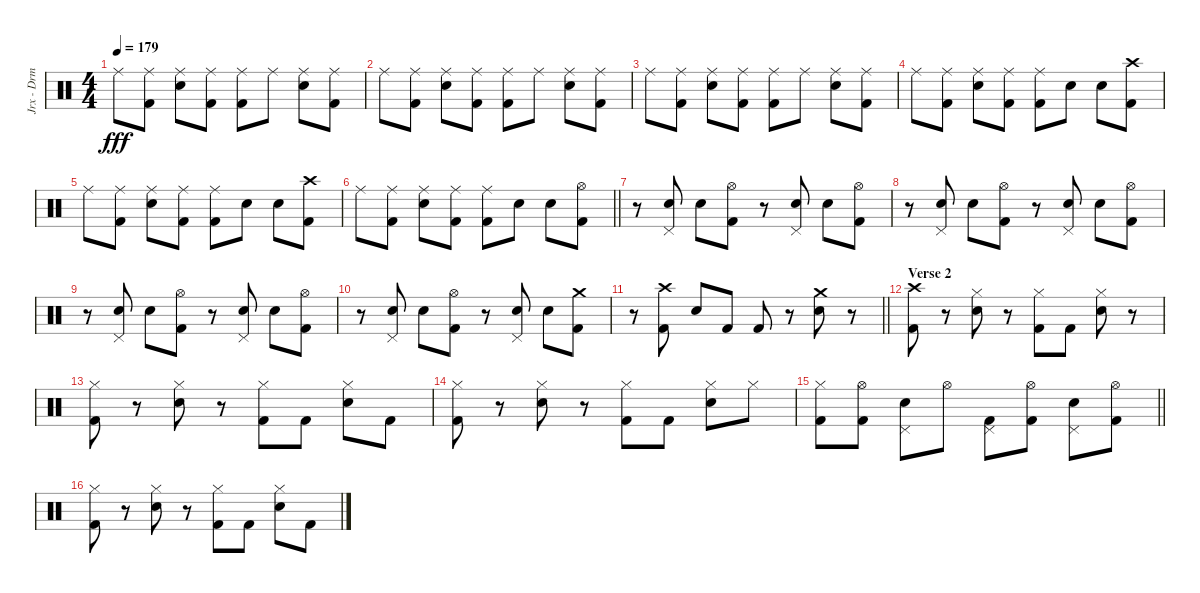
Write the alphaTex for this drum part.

\track ("Jrx - Drm" "Jrx - Drm") {instrument percussion}
\staff {score}
\articulation defaults
\ts (4 4)
\tempo 179
\clef neutral
\ks c "Ride (middle)".8{dy fff}
("Kick (hit) 2" "Ride (middle)").8 ("Snare (hit) 2" "Ride (middle)").8 ("Kick (hit) 2" "Ride (middle)").8 ("Kick (hit) 2" "Ride (middle)").8 "Ride (middle)".8 ("Snare (hit) 2" "Ride (middle)").8 ("Kick (hit) 2" "Ride (middle)").8 |
"Ride (middle)".8 ("Kick (hit) 2" "Ride (middle)").8 ("Snare (hit) 2" "Ride (middle)").8 ("Kick (hit) 2" "Ride (middle)").8 ("Kick (hit) 2" "Ride (middle)").8 "Ride (middle)".8 ("Snare (hit) 2" "Ride (middle)").8 ("Kick (hit) 2" "Ride (middle)").8 |
"Ride (middle)".8 ("Kick (hit) 2" "Ride (middle)").8 ("Snare (hit) 2" "Ride (middle)").8 ("Kick (hit) 2" "Ride (middle)").8 ("Kick (hit) 2" "Ride (middle)").8 "Ride (middle)".8 ("Snare (hit) 2" "Ride (middle)").8 ("Kick (hit) 2" "Ride (middle)").8 |
"Ride (middle)".8 ("Kick (hit) 2" "Ride (middle)").8 ("Snare (hit) 2" "Ride (middle)").8 ("Kick (hit) 2" "Ride (middle)").8 ("Kick (hit) 2" "Ride (middle)").8 "Snare (hit) 2".8 "Snare (hit) 2".8 ("Kick (hit) 2" "Crash high (hit)").8 |
"Ride (middle)".8 ("Kick (hit) 2" "Ride (middle)").8 ("Snare (hit) 2" "Ride (middle)").8 ("Kick (hit) 2" "Ride (middle)").8 ("Kick (hit) 2" "Ride (middle)").8 "Snare (hit) 2".8 "Snare (hit) 2".8 ("Kick (hit) 2" "Crash high (hit)").8 |
\barLineRight lightlight "Ride (middle)".8
("Kick (hit) 2" "Ride (middle)").8 ("Snare (hit) 2" "Ride (middle)").8 ("Kick (hit) 2" "Ride (middle)").8 ("Kick (hit) 2" "Ride (middle)").8 "Snare (hit) 2".8 "Snare (hit) 2".8 ("Hi-Hat (open)" "Kick (hit) 2").8 |
r.8 ("Pedal Hi-Hat (hit)" "Snare (hit) 2").8 "Snare (hit) 2".8 ("Hi-Hat (open)" "Kick (hit) 2").8 r.8 ("Pedal Hi-Hat (hit)" "Snare (hit) 2").8 "Snare (hit) 2".8 ("Hi-Hat (open)" "Kick (hit) 2").8 |
r.8 ("Pedal Hi-Hat (hit)" "Snare (hit) 2").8 "Snare (hit) 2".8 ("Hi-Hat (open)" "Kick (hit) 2").8 r.8 ("Pedal Hi-Hat (hit)" "Snare (hit) 2").8 "Snare (hit) 2".8 ("Hi-Hat (open)" "Kick (hit) 2").8 |
r.8 ("Pedal Hi-Hat (hit)" "Snare (hit) 2").8 "Snare (hit) 2".8 ("Hi-Hat (open)" "Kick (hit) 2").8 r.8 ("Pedal Hi-Hat (hit)" "Snare (hit) 2").8 "Snare (hit) 2".8 ("Hi-Hat (open)" "Kick (hit) 2").8 |
r.8 ("Pedal Hi-Hat (hit)" "Snare (hit) 2").8 "Snare (hit) 2".8 ("Hi-Hat (open)" "Kick (hit) 2").8 r.8 ("Pedal Hi-Hat (hit)" "Snare (hit) 2").8 "Snare (hit) 2".8 ("Kick (hit) 2" "Crash medium (hit)").8 |
\barLineRight lightlight
r.8 ("Kick (hit) 2" "Crash high (hit)").8 "Snare (hit) 2".8 "Kick (hit) 2".8 "Kick (hit) 2".8 r.8 ("Snare (hit) 2" "Crash medium (hit)").8 r.8 |
\section ("" "Verse 2")
("Kick (hit) 2" "Crash high (hit)").8 r.8 ("Hi-Hat (closed)" "Snare (hit) 2").8 r.8 ("Hi-Hat (closed)" "Kick (hit) 2").8 "Kick (hit) 2".8 ("Hi-Hat (closed)" "Snare (hit) 2").8 r.8 |
("Hi-Hat (closed)" "Kick (hit) 2").8 r.8 ("Hi-Hat (closed)" "Snare (hit) 2").8 r.8 ("Hi-Hat (closed)" "Kick (hit) 2").8 "Kick (hit) 2".8 ("Hi-Hat (closed)" "Snare (hit) 2").8 "Kick (hit) 2".8 |
("Hi-Hat (closed)" "Kick (hit) 2").8 r.8 ("Hi-Hat (closed)" "Snare (hit) 2").8 r.8 ("Hi-Hat (closed)" "Kick (hit) 2").8 "Kick (hit) 2".8 ("Hi-Hat (closed)" "Snare (hit) 2").8 "Hi-Hat (closed)".8 |
\barLineRight lightlight
("Hi-Hat (closed)" "Kick (hit) 2").8 ("Hi-Hat (open)" "Kick (hit) 2").8 ("Pedal Hi-Hat (hit)" "Snare (hit) 2").8 "Hi-Hat (open)".8 ("Pedal Hi-Hat (hit)" "Kick (hit) 2").8 ("Hi-Hat (open)" "Kick (hit) 2").8 ("Pedal Hi-Hat (hit)" "Snare (hit) 2").8 ("Hi-Hat (open)" "Kick (hit) 2").8 |
("Hi-Hat (closed)" "Kick (hit) 2").8 r.8 ("Hi-Hat (closed)" "Snare (hit) 2").8 r.8 ("Hi-Hat (closed)" "Kick (hit) 2").8 "Kick (hit) 2".8 ("Hi-Hat (closed)" "Snare (hit) 2").8 "Kick (hit) 2".8
